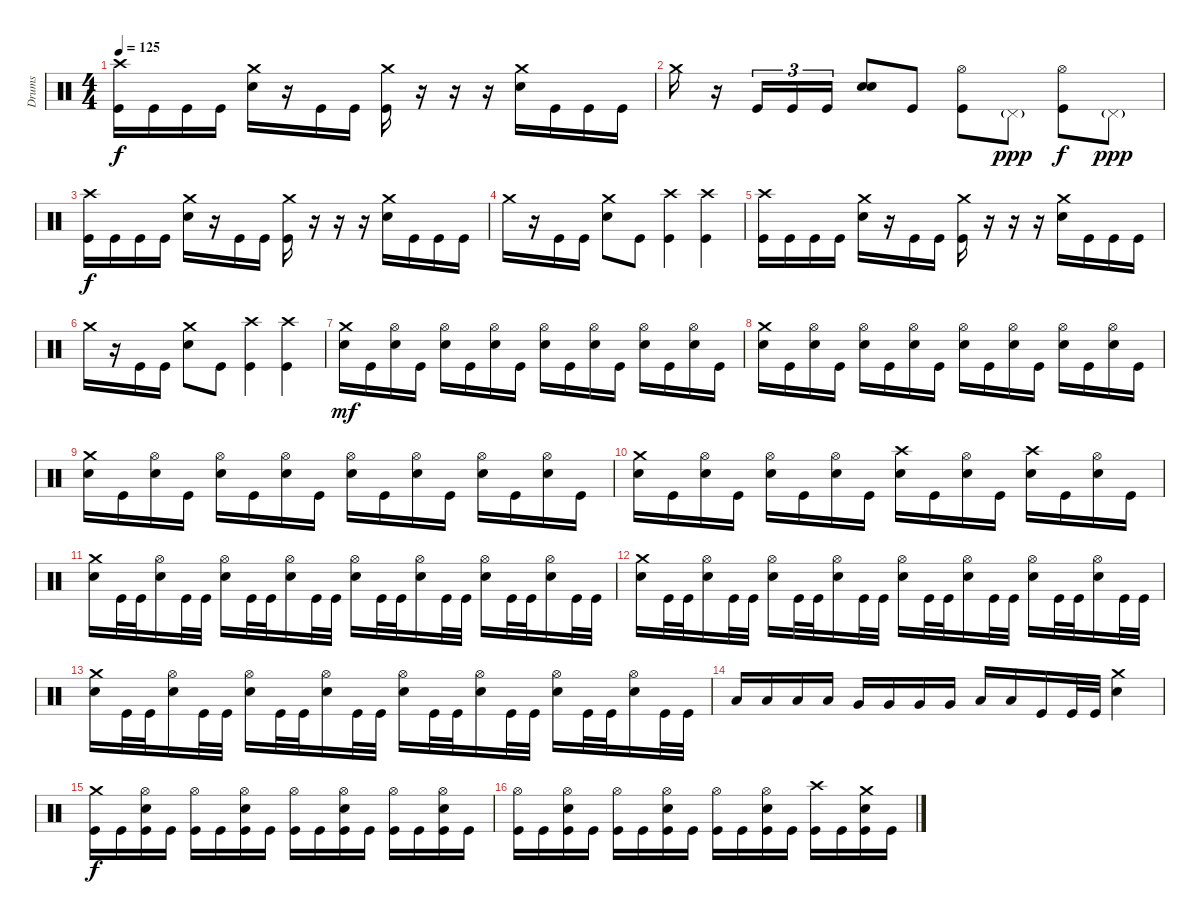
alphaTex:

\track ("Drums" "Drums") {instrument percussion}
\staff {score}
\articulation defaults
\ts (4 4)
\tempo 125
\clef neutral
\ks c
("Crash high (hit)" "Kick (hit)").16{dy f} "Kick (hit)".16 "Kick (hit)".16 "Kick (hit)".16 ("Crash medium (hit)" "Electric Snare (hit)").16 r.16 "Kick (hit)".16 "Kick (hit)".16 ("Crash medium (hit)" "Kick (hit)").16 r.16 r.16 r.16 ("Crash medium (hit)" "Electric Snare (hit)").16 "Kick (hit)".16 "Kick (hit)".16 "Kick (hit)".16 |
"Crash medium (hit)".16 r.16 "Kick (hit)".16{tu (3 2)} "Kick (hit)".16{tu (3 2)} "Kick (hit)".16{tu (3 2)} ("Electric Snare (hit)" "Electric Snare (hit)").8 "Kick (hit)".8 ("Hi-Hat (open)" "Kick (hit)").8 "Pedal Hi-Hat (hit)"{g}.8{dy ppp} ("Hi-Hat (open)" "Kick (hit)").8{dy f} "Pedal Hi-Hat (hit)"{g}.8{dy ppp} |
("Crash high (hit)" "Kick (hit)").16{dy f} "Kick (hit)".16 "Kick (hit)".16 "Kick (hit)".16 ("Crash medium (hit)" "Electric Snare (hit)").16 r.16 "Kick (hit)".16 "Kick (hit)".16 ("Crash medium (hit)" "Kick (hit)").16 r.16 r.16 r.16 ("Crash medium (hit)" "Electric Snare (hit)").16 "Kick (hit)".16 "Kick (hit)".16 "Kick (hit)".16 |
"Crash medium (hit)".16 r.16 "Kick (hit)".16 "Kick (hit)".16 ("Crash medium (hit)" "Electric Snare (hit)").8 "Kick (hit)".8 ("Crash high (hit)" "Kick (hit)").4 ("Crash high (hit)" "Kick (hit)").4 |
("Crash high (hit)" "Kick (hit)").16 "Kick (hit)".16 "Kick (hit)".16 "Kick (hit)".16 ("Crash medium (hit)" "Electric Snare (hit)").16 r.16 "Kick (hit)".16 "Kick (hit)".16 ("Crash medium (hit)" "Kick (hit)").16 r.16 r.16 r.16 ("Crash medium (hit)" "Electric Snare (hit)").16 "Kick (hit)".16 "Kick (hit)".16 "Kick (hit)".16 |
"Crash medium (hit)".16 r.16 "Kick (hit)".16 "Kick (hit)".16 ("Crash medium (hit)" "Electric Snare (hit)").8 "Kick (hit)".8 ("Crash high (hit)" "Kick (hit)").4 ("Crash high (hit)" "Kick (hit)").4 |
("Crash medium (hit)" "Electric Snare (hit)").16{dy mf} "Kick (hit)".16 ("Hi-Hat (open)" "Electric Snare (hit)").16 "Kick (hit)".16 ("Hi-Hat (open)" "Electric Snare (hit)").16 "Kick (hit)".16 ("Hi-Hat (open)" "Electric Snare (hit)").16 "Kick (hit)".16 ("Hi-Hat (open)" "Electric Snare (hit)").16 "Kick (hit)".16 ("Hi-Hat (open)" "Electric Snare (hit)").16 "Kick (hit)".16 ("Hi-Hat (open)" "Electric Snare (hit)").16 "Kick (hit)".16 ("Hi-Hat (open)" "Electric Snare (hit)").16 "Kick (hit)".16 |
("Crash medium (hit)" "Electric Snare (hit)").16 "Kick (hit)".16 ("Hi-Hat (open)" "Electric Snare (hit)").16 "Kick (hit)".16 ("Hi-Hat (open)" "Electric Snare (hit)").16 "Kick (hit)".16 ("Hi-Hat (open)" "Electric Snare (hit)").16 "Kick (hit)".16 ("Hi-Hat (open)" "Electric Snare (hit)").16 "Kick (hit)".16 ("Hi-Hat (open)" "Electric Snare (hit)").16 "Kick (hit)".16 ("Hi-Hat (open)" "Electric Snare (hit)").16 "Kick (hit)".16 ("Hi-Hat (open)" "Electric Snare (hit)").16 "Kick (hit)".16 |
("Crash medium (hit)" "Electric Snare (hit)").16 "Kick (hit)".16 ("Hi-Hat (open)" "Electric Snare (hit)").16 "Kick (hit)".16 ("Hi-Hat (open)" "Electric Snare (hit)").16 "Kick (hit)".16 ("Hi-Hat (open)" "Electric Snare (hit)").16 "Kick (hit)".16 ("Hi-Hat (open)" "Electric Snare (hit)").16 "Kick (hit)".16 ("Hi-Hat (open)" "Electric Snare (hit)").16 "Kick (hit)".16 ("Hi-Hat (open)" "Electric Snare (hit)").16 "Kick (hit)".16 ("Hi-Hat (open)" "Electric Snare (hit)").16 "Kick (hit)".16 |
("Crash medium (hit)" "Electric Snare (hit)").16 "Kick (hit)".16 ("Hi-Hat (open)" "Electric Snare (hit)").16 "Kick (hit)".16 ("Hi-Hat (open)" "Electric Snare (hit)").16 "Kick (hit)".16 ("Hi-Hat (open)" "Electric Snare (hit)").16 "Kick (hit)".16 ("Crash high (hit)" "Electric Snare (hit)").16 "Kick (hit)".16 ("Hi-Hat (open)" "Electric Snare (hit)").16 "Kick (hit)".16 ("Crash high (hit)" "Electric Snare (hit)").16 "Kick (hit)".16 ("Hi-Hat (open)" "Electric Snare (hit)").16 "Kick (hit)".16 |
("Crash medium (hit)" "Electric Snare (hit)").16 "Kick (hit)".32 "Kick (hit)".32 ("Hi-Hat (open)" "Electric Snare (hit)").16 "Kick (hit)".32 "Kick (hit)".32 ("Hi-Hat (open)" "Electric Snare (hit)").16 "Kick (hit)".32 "Kick (hit)".32 ("Hi-Hat (open)" "Electric Snare (hit)").16 "Kick (hit)".32 "Kick (hit)".32 ("Hi-Hat (open)" "Electric Snare (hit)").16 "Kick (hit)".32 "Kick (hit)".32 ("Hi-Hat (open)" "Electric Snare (hit)").16 "Kick (hit)".32 "Kick (hit)".32 ("Hi-Hat (open)" "Electric Snare (hit)").16 "Kick (hit)".32 "Kick (hit)".32 ("Hi-Hat (open)" "Electric Snare (hit)").16 "Kick (hit)".32 "Kick (hit)".32 |
("Crash medium (hit)" "Electric Snare (hit)").16 "Kick (hit)".32 "Kick (hit)".32 ("Hi-Hat (open)" "Electric Snare (hit)").16 "Kick (hit)".32 "Kick (hit)".32 ("Hi-Hat (open)" "Electric Snare (hit)").16 "Kick (hit)".32 "Kick (hit)".32 ("Hi-Hat (open)" "Electric Snare (hit)").16 "Kick (hit)".32 "Kick (hit)".32 ("Hi-Hat (open)" "Electric Snare (hit)").16 "Kick (hit)".32 "Kick (hit)".32 ("Hi-Hat (open)" "Electric Snare (hit)").16 "Kick (hit)".32 "Kick (hit)".32 ("Hi-Hat (open)" "Electric Snare (hit)").16 "Kick (hit)".32 "Kick (hit)".32 ("Hi-Hat (open)" "Electric Snare (hit)").16 "Kick (hit)".32 "Kick (hit)".32 |
("Crash medium (hit)" "Electric Snare (hit)").16 "Kick (hit)".32 "Kick (hit)".32 ("Hi-Hat (open)" "Electric Snare (hit)").16 "Kick (hit)".32 "Kick (hit)".32 ("Hi-Hat (open)" "Electric Snare (hit)").16 "Kick (hit)".32 "Kick (hit)".32 ("Hi-Hat (open)" "Electric Snare (hit)").16 "Kick (hit)".32 "Kick (hit)".32 ("Hi-Hat (open)" "Electric Snare (hit)").16 "Kick (hit)".32 "Kick (hit)".32 ("Hi-Hat (open)" "Electric Snare (hit)").16 "Kick (hit)".32 "Kick (hit)".32 ("Hi-Hat (open)" "Electric Snare (hit)").16 "Kick (hit)".32 "Kick (hit)".32 ("Hi-Hat (open)" "Electric Snare (hit)").16 "Kick (hit)".32 "Kick (hit)".32 |
"Low Tom (hit)".16 "Low Tom (hit)".16 "Low Tom (hit)".16 "Low Tom (hit)".16 "Very Low Tom (hit)".16 "Very Low Tom (hit)".16 "Very Low Tom (hit)".16 "Very Low Tom (hit)".16 "Low Floor Tom (hit)".16 "Low Floor Tom (hit)".16 "Kick (hit)".16 "Kick (hit)".32 "Kick (hit)".32 ("Crash medium (hit)" "Electric Snare (hit)").4 |
("Crash medium (hit)" "Kick (hit)").16{dy f} "Kick (hit)".16 ("Hi-Hat (open)" "Electric Snare (hit)" "Kick (hit)").16 "Kick (hit)".16 ("Hi-Hat (open)" "Kick (hit)").16 "Kick (hit)".16 ("Hi-Hat (open)" "Electric Snare (hit)" "Kick (hit)").16 "Kick (hit)".16 ("Hi-Hat (open)" "Kick (hit)").16 "Kick (hit)".16 ("Hi-Hat (open)" "Electric Snare (hit)" "Kick (hit)").16 "Kick (hit)".16 ("Hi-Hat (open)" "Kick (hit)").16 "Kick (hit)".16 ("Hi-Hat (open)" "Electric Snare (hit)" "Kick (hit)").16 "Kick (hit)".16 |
("Hi-Hat (open)" "Kick (hit)").16 "Kick (hit)".16 ("Hi-Hat (open)" "Electric Snare (hit)" "Kick (hit)").16 "Kick (hit)".16 ("Hi-Hat (open)" "Kick (hit)").16 "Kick (hit)".16 ("Hi-Hat (open)" "Electric Snare (hit)" "Kick (hit)").16 "Kick (hit)".16 ("Hi-Hat (open)" "Kick (hit)").16 "Kick (hit)".16 ("Hi-Hat (open)" "Electric Snare (hit)" "Kick (hit)").16 "Kick (hit)".16 ("Crash high (hit)" "Kick (hit)").16 "Kick (hit)".16 ("Crash medium (hit)" "Electric Snare (hit)" "Kick (hit)").16 "Kick (hit)".16
